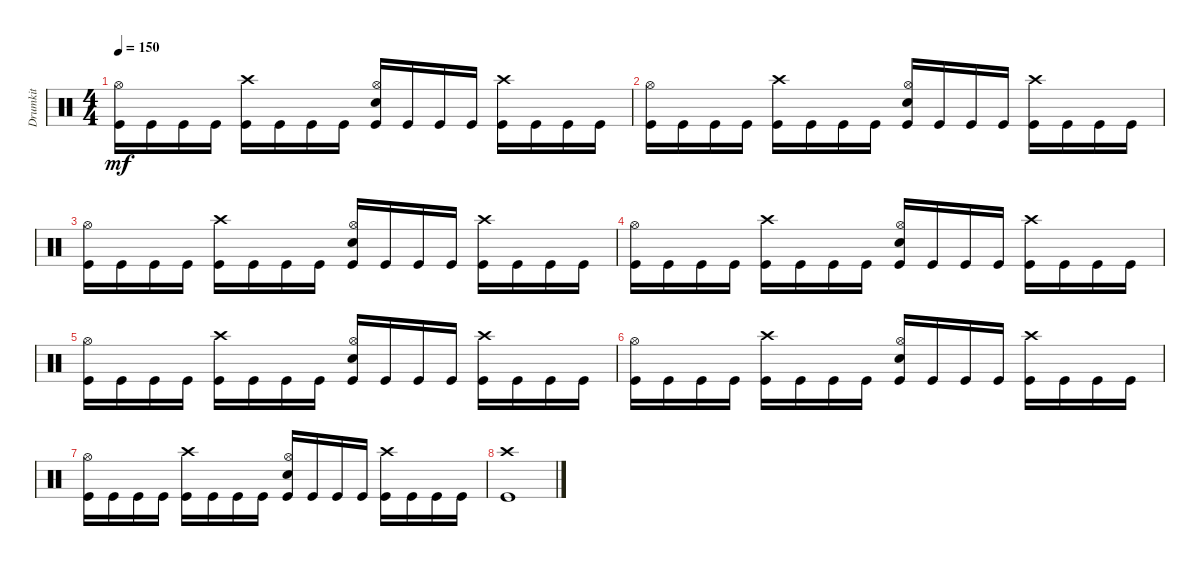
\track ("Drumkit" "Drumkit") {instrument percussion}
\staff {score}
\articulation defaults
\ts (4 4)
\tempo 150
\clef neutral
\ks c
("Kick (hit)" "Hi-Hat (open)").16{dy mf} "Kick (hit)".16 "Kick (hit)".16 "Kick (hit)".16 ("Crash high (hit)" "Kick (hit)").16 "Kick (hit)".16 "Kick (hit)".16 "Kick (hit)".16 ("Snare (hit) 2" "Hi-Hat (open)" "Kick (hit)").16 "Kick (hit)".16 "Kick (hit)".16 "Kick (hit)".16 ("Crash high (hit)" "Kick (hit)").16 "Kick (hit)".16 "Kick (hit)".16 "Kick (hit)".16 |
("Kick (hit)" "Hi-Hat (open)").16 "Kick (hit)".16 "Kick (hit)".16 "Kick (hit)".16 ("Crash high (hit)" "Kick (hit)").16 "Kick (hit)".16 "Kick (hit)".16 "Kick (hit)".16 ("Snare (hit) 2" "Hi-Hat (open)" "Kick (hit)").16 "Kick (hit)".16 "Kick (hit)".16 "Kick (hit)".16 ("Crash high (hit)" "Kick (hit)").16 "Kick (hit)".16 "Kick (hit)".16 "Kick (hit)".16 |
("Kick (hit)" "Hi-Hat (open)").16 "Kick (hit)".16 "Kick (hit)".16 "Kick (hit)".16 ("Crash high (hit)" "Kick (hit)").16 "Kick (hit)".16 "Kick (hit)".16 "Kick (hit)".16 ("Snare (hit) 2" "Hi-Hat (open)" "Kick (hit)").16 "Kick (hit)".16 "Kick (hit)".16 "Kick (hit)".16 ("Crash high (hit)" "Kick (hit)").16 "Kick (hit)".16 "Kick (hit)".16 "Kick (hit)".16 |
("Kick (hit)" "Hi-Hat (open)").16 "Kick (hit)".16 "Kick (hit)".16 "Kick (hit)".16 ("Crash high (hit)" "Kick (hit)").16 "Kick (hit)".16 "Kick (hit)".16 "Kick (hit)".16 ("Snare (hit) 2" "Hi-Hat (open)" "Kick (hit)").16 "Kick (hit)".16 "Kick (hit)".16 "Kick (hit)".16 ("Crash high (hit)" "Kick (hit)").16 "Kick (hit)".16 "Kick (hit)".16 "Kick (hit)".16 |
("Kick (hit)" "Hi-Hat (open)").16 "Kick (hit)".16 "Kick (hit)".16 "Kick (hit)".16 ("Crash high (hit)" "Kick (hit)").16 "Kick (hit)".16 "Kick (hit)".16 "Kick (hit)".16 ("Snare (hit) 2" "Hi-Hat (open)" "Kick (hit)").16 "Kick (hit)".16 "Kick (hit)".16 "Kick (hit)".16 ("Crash high (hit)" "Kick (hit)").16 "Kick (hit)".16 "Kick (hit)".16 "Kick (hit)".16 |
("Kick (hit)" "Hi-Hat (open)").16 "Kick (hit)".16 "Kick (hit)".16 "Kick (hit)".16 ("Crash high (hit)" "Kick (hit)").16 "Kick (hit)".16 "Kick (hit)".16 "Kick (hit)".16 ("Snare (hit) 2" "Hi-Hat (open)" "Kick (hit)").16 "Kick (hit)".16 "Kick (hit)".16 "Kick (hit)".16 ("Crash high (hit)" "Kick (hit)").16 "Kick (hit)".16 "Kick (hit)".16 "Kick (hit)".16 |
("Kick (hit)" "Hi-Hat (open)").16 "Kick (hit)".16 "Kick (hit)".16 "Kick (hit)".16 ("Crash high (hit)" "Kick (hit)").16 "Kick (hit)".16 "Kick (hit)".16 "Kick (hit)".16 ("Snare (hit) 2" "Hi-Hat (open)" "Kick (hit)").16 "Kick (hit)".16 "Kick (hit)".16 "Kick (hit)".16 ("Crash high (hit)" "Kick (hit)").16 "Kick (hit)".16 "Kick (hit)".16 "Kick (hit)".16 |
("Kick (hit)" "Crash high (hit)").1
